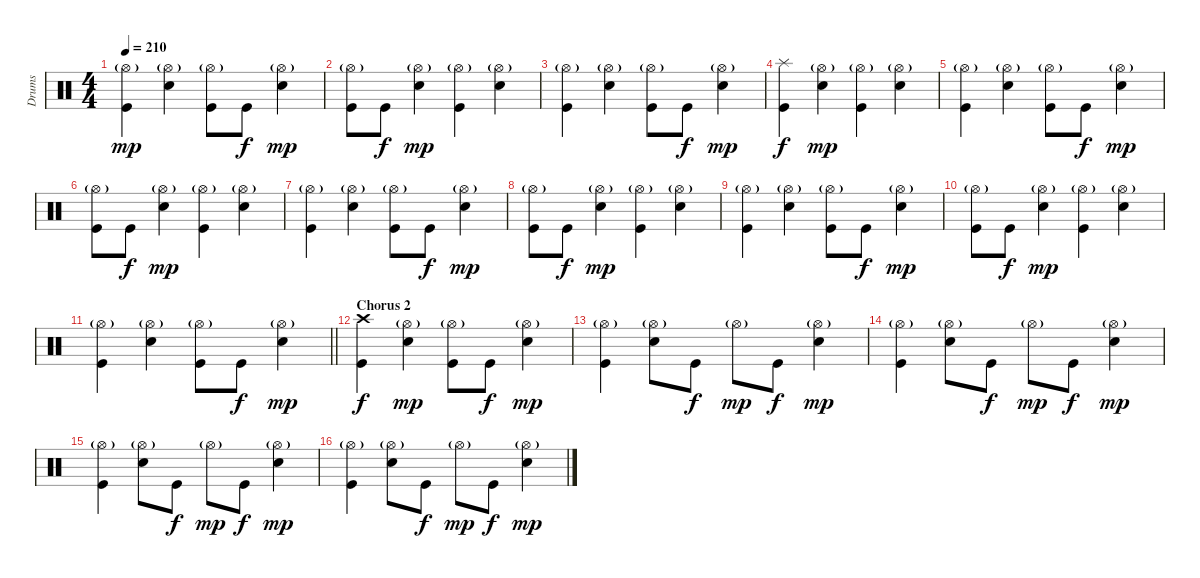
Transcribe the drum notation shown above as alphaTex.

\track ("Drums" "Drums") {instrument percussion}
\staff {score}
\articulation defaults
\ts (4 4)
\tempo 210
\clef neutral
\ks c
("Hi-Hat (open)"{g} "Kick (hit)").4{dy mp} ("Hi-Hat (open)"{g} "Snare (hit) 2").4 ("Hi-Hat (open)"{g} "Kick (hit)").8 "Kick (hit)".8{dy f} ("Hi-Hat (open)"{g} "Snare (hit) 2").4{dy mp} |
("Hi-Hat (open)"{g} "Kick (hit)").8 "Kick (hit)".8{dy f} ("Hi-Hat (open)"{g} "Snare (hit) 2").4{dy mp} ("Hi-Hat (open)"{g} "Kick (hit)").4 ("Hi-Hat (open)"{g} "Snare (hit) 2").4 |
("Hi-Hat (open)"{g} "Kick (hit)").4 ("Hi-Hat (open)"{g} "Snare (hit) 2").4 ("Hi-Hat (open)"{g} "Kick (hit)").8 "Kick (hit)".8{dy f} ("Hi-Hat (open)"{g} "Snare (hit) 2").4{dy mp} |
("Splash (hit)" "Kick (hit)").4{dy f} ("Hi-Hat (open)"{g} "Snare (hit) 2").4{dy mp} ("Hi-Hat (open)"{g} "Kick (hit)").4 ("Hi-Hat (open)"{g} "Snare (hit) 2").4 |
("Hi-Hat (open)"{g} "Kick (hit)").4 ("Hi-Hat (open)"{g} "Snare (hit) 2").4 ("Hi-Hat (open)"{g} "Kick (hit)").8 "Kick (hit)".8{dy f} ("Hi-Hat (open)"{g} "Snare (hit) 2").4{dy mp} |
("Hi-Hat (open)"{g} "Kick (hit)").8 "Kick (hit)".8{dy f} ("Hi-Hat (open)"{g} "Snare (hit) 2").4{dy mp} ("Hi-Hat (open)"{g} "Kick (hit)").4 ("Hi-Hat (open)"{g} "Snare (hit) 2").4 |
("Hi-Hat (open)"{g} "Kick (hit)").4 ("Hi-Hat (open)"{g} "Snare (hit) 2").4 ("Hi-Hat (open)"{g} "Kick (hit)").8 "Kick (hit)".8{dy f} ("Hi-Hat (open)"{g} "Snare (hit) 2").4{dy mp} |
("Hi-Hat (open)"{g} "Kick (hit)").8 "Kick (hit)".8{dy f} ("Hi-Hat (open)"{g} "Snare (hit) 2").4{dy mp} ("Hi-Hat (open)"{g} "Kick (hit)").4 ("Hi-Hat (open)"{g} "Snare (hit) 2").4 |
("Hi-Hat (open)"{g} "Kick (hit)").4 ("Hi-Hat (open)"{g} "Snare (hit) 2").4 ("Hi-Hat (open)"{g} "Kick (hit)").8 "Kick (hit)".8{dy f} ("Hi-Hat (open)"{g} "Snare (hit) 2").4{dy mp} |
("Hi-Hat (open)"{g} "Kick (hit)").8 "Kick (hit)".8{dy f} ("Hi-Hat (open)"{g} "Snare (hit) 2").4{dy mp} ("Hi-Hat (open)"{g} "Kick (hit)").4 ("Hi-Hat (open)"{g} "Snare (hit) 2").4 |
\barLineRight lightlight
("Hi-Hat (open)"{g} "Kick (hit)").4 ("Hi-Hat (open)"{g} "Snare (hit) 2").4 ("Hi-Hat (open)"{g} "Kick (hit)").8 "Kick (hit)".8{dy f} ("Hi-Hat (open)"{g} "Snare (hit) 2").4{dy mp} |
\section ("" "Chorus 2")
("Crash high (hit)" "Kick (hit)").4{dy f} ("Hi-Hat (open)"{g} "Snare (hit) 2").4{dy mp} ("Hi-Hat (open)"{g} "Kick (hit)").8 "Kick (hit)".8{dy f} ("Hi-Hat (open)"{g} "Snare (hit) 2").4{dy mp} |
("Hi-Hat (open)"{g} "Kick (hit)").4 ("Hi-Hat (open)"{g} "Snare (hit) 2").8 "Kick (hit)".8{dy f} "Hi-Hat (open)"{g}.8{dy mp} "Kick (hit)".8{dy f} ("Hi-Hat (open)"{g} "Snare (hit) 2").4{dy mp} |
("Hi-Hat (open)"{g} "Kick (hit)").4 ("Hi-Hat (open)"{g} "Snare (hit) 2").8 "Kick (hit)".8{dy f} "Hi-Hat (open)"{g}.8{dy mp} "Kick (hit)".8{dy f} ("Hi-Hat (open)"{g} "Snare (hit) 2").4{dy mp} |
("Hi-Hat (open)"{g} "Kick (hit)").4 ("Hi-Hat (open)"{g} "Snare (hit) 2").8 "Kick (hit)".8{dy f} "Hi-Hat (open)"{g}.8{dy mp} "Kick (hit)".8{dy f} ("Hi-Hat (open)"{g} "Snare (hit) 2").4{dy mp} |
("Hi-Hat (open)"{g} "Kick (hit)").4 ("Hi-Hat (open)"{g} "Snare (hit) 2").8 "Kick (hit)".8{dy f} "Hi-Hat (open)"{g}.8{dy mp} "Kick (hit)".8{dy f} ("Hi-Hat (open)"{g} "Snare (hit) 2").4{dy mp}
